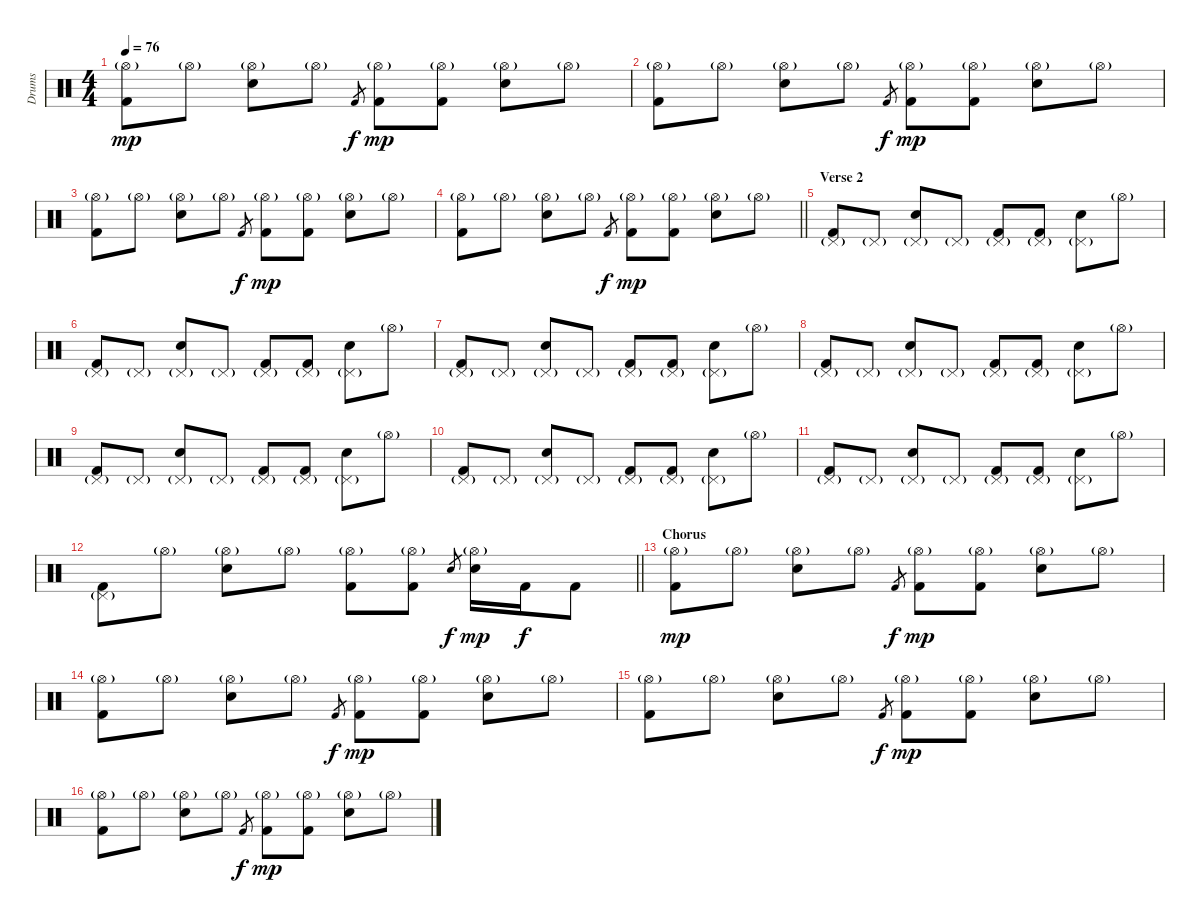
\track ("Drums" "Drums") {instrument percussion}
\staff {score}
\articulation defaults
\ts (4 4)
\tempo 76
\clef neutral
\ks c
("Kick (hit) 2" "Hi-Hat (open)"{g}).8{dy mp} "Hi-Hat (open)"{g}.8 ("Electric Snare (hit)" "Hi-Hat (open)"{g}).8 "Hi-Hat (open)"{g}.8 "Kick (hit) 2".8{gr dy f} ("Kick (hit) 2" "Hi-Hat (open)"{g}).8{dy mp} ("Kick (hit) 2" "Hi-Hat (open)"{g}).8 ("Electric Snare (hit)" "Hi-Hat (open)"{g}).8 "Hi-Hat (open)"{g}.8 |
("Kick (hit) 2" "Hi-Hat (open)"{g}).8 "Hi-Hat (open)"{g}.8 ("Electric Snare (hit)" "Hi-Hat (open)"{g}).8 "Hi-Hat (open)"{g}.8 "Kick (hit) 2".8{gr dy f} ("Kick (hit) 2" "Hi-Hat (open)"{g}).8{dy mp} ("Kick (hit) 2" "Hi-Hat (open)"{g}).8 ("Electric Snare (hit)" "Hi-Hat (open)"{g}).8 "Hi-Hat (open)"{g}.8 |
("Kick (hit) 2" "Hi-Hat (open)"{g}).8 "Hi-Hat (open)"{g}.8 ("Electric Snare (hit)" "Hi-Hat (open)"{g}).8 "Hi-Hat (open)"{g}.8 "Kick (hit) 2".8{gr dy f} ("Kick (hit) 2" "Hi-Hat (open)"{g}).8{dy mp} ("Kick (hit) 2" "Hi-Hat (open)"{g}).8 ("Electric Snare (hit)" "Hi-Hat (open)"{g}).8 "Hi-Hat (open)"{g}.8 |
\barLineRight lightlight
("Kick (hit) 2" "Hi-Hat (open)"{g}).8 "Hi-Hat (open)"{g}.8 ("Electric Snare (hit)" "Hi-Hat (open)"{g}).8 "Hi-Hat (open)"{g}.8 "Kick (hit) 2".8{gr dy f} ("Kick (hit) 2" "Hi-Hat (open)"{g}).8{dy mp} ("Kick (hit) 2" "Hi-Hat (open)"{g}).8 ("Electric Snare (hit)" "Hi-Hat (open)"{g}).8 "Hi-Hat (open)"{g}.8 |
\section ("" "Verse 2")
("Kick (hit) 2" "Pedal Hi-Hat (hit)"{g}).8 "Pedal Hi-Hat (hit)"{g}.8 ("Electric Snare (hit)" "Pedal Hi-Hat (hit)"{g}).8 "Pedal Hi-Hat (hit)"{g}.8 ("Kick (hit) 2" "Pedal Hi-Hat (hit)"{g}).8 ("Kick (hit) 2" "Pedal Hi-Hat (hit)"{g}).8 ("Electric Snare (hit)" "Pedal Hi-Hat (hit)"{g}).8 "Hi-Hat (open)"{g}.8 |
("Kick (hit) 2" "Pedal Hi-Hat (hit)"{g}).8 "Pedal Hi-Hat (hit)"{g}.8 ("Electric Snare (hit)" "Pedal Hi-Hat (hit)"{g}).8 "Pedal Hi-Hat (hit)"{g}.8 ("Kick (hit) 2" "Pedal Hi-Hat (hit)"{g}).8 ("Kick (hit) 2" "Pedal Hi-Hat (hit)"{g}).8 ("Electric Snare (hit)" "Pedal Hi-Hat (hit)"{g}).8 "Hi-Hat (open)"{g}.8 |
("Kick (hit) 2" "Pedal Hi-Hat (hit)"{g}).8 "Pedal Hi-Hat (hit)"{g}.8 ("Electric Snare (hit)" "Pedal Hi-Hat (hit)"{g}).8 "Pedal Hi-Hat (hit)"{g}.8 ("Kick (hit) 2" "Pedal Hi-Hat (hit)"{g}).8 ("Kick (hit) 2" "Pedal Hi-Hat (hit)"{g}).8 ("Electric Snare (hit)" "Pedal Hi-Hat (hit)"{g}).8 "Hi-Hat (open)"{g}.8 |
("Kick (hit) 2" "Pedal Hi-Hat (hit)"{g}).8 "Pedal Hi-Hat (hit)"{g}.8 ("Electric Snare (hit)" "Pedal Hi-Hat (hit)"{g}).8 "Pedal Hi-Hat (hit)"{g}.8 ("Kick (hit) 2" "Pedal Hi-Hat (hit)"{g}).8 ("Kick (hit) 2" "Pedal Hi-Hat (hit)"{g}).8 ("Electric Snare (hit)" "Pedal Hi-Hat (hit)"{g}).8 "Hi-Hat (open)"{g}.8 |
("Kick (hit) 2" "Pedal Hi-Hat (hit)"{g}).8 "Pedal Hi-Hat (hit)"{g}.8 ("Electric Snare (hit)" "Pedal Hi-Hat (hit)"{g}).8 "Pedal Hi-Hat (hit)"{g}.8 ("Kick (hit) 2" "Pedal Hi-Hat (hit)"{g}).8 ("Kick (hit) 2" "Pedal Hi-Hat (hit)"{g}).8 ("Electric Snare (hit)" "Pedal Hi-Hat (hit)"{g}).8 "Hi-Hat (open)"{g}.8 |
("Kick (hit) 2" "Pedal Hi-Hat (hit)"{g}).8 "Pedal Hi-Hat (hit)"{g}.8 ("Electric Snare (hit)" "Pedal Hi-Hat (hit)"{g}).8 "Pedal Hi-Hat (hit)"{g}.8 ("Kick (hit) 2" "Pedal Hi-Hat (hit)"{g}).8 ("Kick (hit) 2" "Pedal Hi-Hat (hit)"{g}).8 ("Electric Snare (hit)" "Pedal Hi-Hat (hit)"{g}).8 "Hi-Hat (open)"{g}.8 |
("Kick (hit) 2" "Pedal Hi-Hat (hit)"{g}).8 "Pedal Hi-Hat (hit)"{g}.8 ("Electric Snare (hit)" "Pedal Hi-Hat (hit)"{g}).8 "Pedal Hi-Hat (hit)"{g}.8 ("Kick (hit) 2" "Pedal Hi-Hat (hit)"{g}).8 ("Kick (hit) 2" "Pedal Hi-Hat (hit)"{g}).8 ("Electric Snare (hit)" "Pedal Hi-Hat (hit)"{g}).8 "Hi-Hat (open)"{g}.8 |
\barLineRight lightlight
("Kick (hit) 2" "Pedal Hi-Hat (hit)"{g}).8 "Hi-Hat (open)"{g}.8 ("Electric Snare (hit)" "Hi-Hat (open)"{g}).8 "Hi-Hat (open)"{g}.8 ("Kick (hit) 2" "Hi-Hat (open)"{g}).8 ("Kick (hit) 2" "Hi-Hat (open)"{g}).8 "Electric Snare (hit)".8{gr dy f} ("Electric Snare (hit)" "Hi-Hat (open)"{g}).16{dy mp} "Kick (hit) 2".16{dy f} "Kick (hit) 2".8 |
\section ("" "Chorus")
("Kick (hit) 2" "Hi-Hat (open)"{g}).8{dy mp} "Hi-Hat (open)"{g}.8 ("Electric Snare (hit)" "Hi-Hat (open)"{g}).8 "Hi-Hat (open)"{g}.8 "Kick (hit) 2".8{gr dy f} ("Kick (hit) 2" "Hi-Hat (open)"{g}).8{dy mp} ("Kick (hit) 2" "Hi-Hat (open)"{g}).8 ("Electric Snare (hit)" "Hi-Hat (open)"{g}).8 "Hi-Hat (open)"{g}.8 |
("Kick (hit) 2" "Hi-Hat (open)"{g}).8 "Hi-Hat (open)"{g}.8 ("Electric Snare (hit)" "Hi-Hat (open)"{g}).8 "Hi-Hat (open)"{g}.8 "Kick (hit) 2".8{gr dy f} ("Kick (hit) 2" "Hi-Hat (open)"{g}).8{dy mp} ("Kick (hit) 2" "Hi-Hat (open)"{g}).8 ("Electric Snare (hit)" "Hi-Hat (open)"{g}).8 "Hi-Hat (open)"{g}.8 |
("Kick (hit) 2" "Hi-Hat (open)"{g}).8 "Hi-Hat (open)"{g}.8 ("Electric Snare (hit)" "Hi-Hat (open)"{g}).8 "Hi-Hat (open)"{g}.8 "Kick (hit) 2".8{gr dy f} ("Kick (hit) 2" "Hi-Hat (open)"{g}).8{dy mp} ("Kick (hit) 2" "Hi-Hat (open)"{g}).8 ("Electric Snare (hit)" "Hi-Hat (open)"{g}).8 "Hi-Hat (open)"{g}.8 |
("Kick (hit) 2" "Hi-Hat (open)"{g}).8 "Hi-Hat (open)"{g}.8 ("Electric Snare (hit)" "Hi-Hat (open)"{g}).8 "Hi-Hat (open)"{g}.8 "Kick (hit) 2".8{gr dy f} ("Kick (hit) 2" "Hi-Hat (open)"{g}).8{dy mp} ("Kick (hit) 2" "Hi-Hat (open)"{g}).8 ("Electric Snare (hit)" "Hi-Hat (open)"{g}).8 "Hi-Hat (open)"{g}.8
